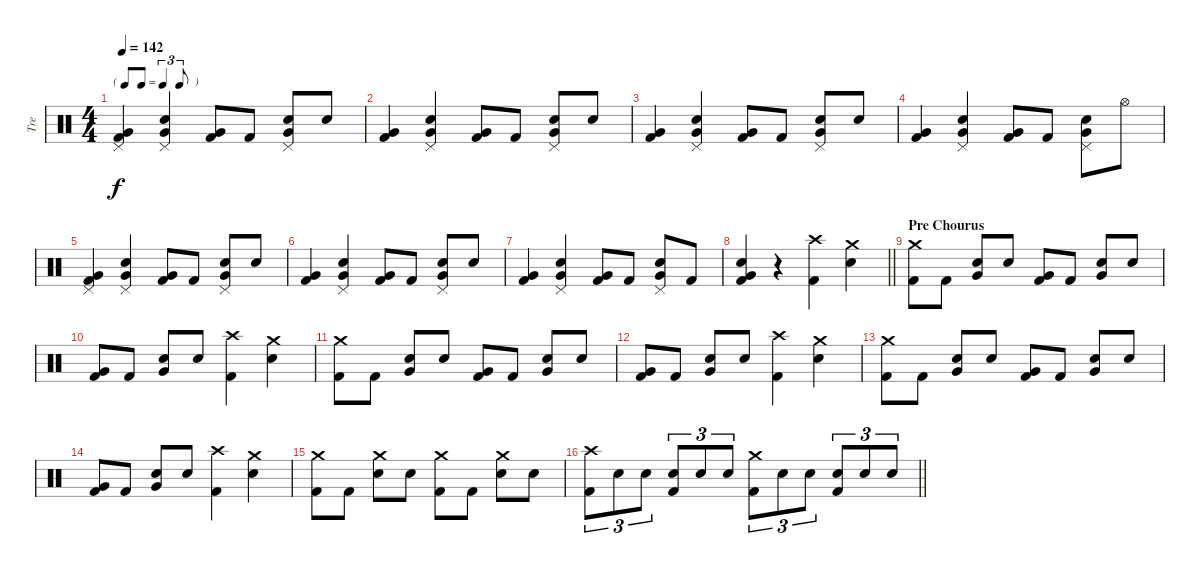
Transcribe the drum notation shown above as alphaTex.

\track ("Tre" "Tre") {instrument percussion}
\staff {score}
\articulation defaults
\ts (4 4)
\tf triplet8th
\tempo 142
\clef neutral
\ks c
("Pedal Hi-Hat (hit)" "Very Low Tom (hit)" "Kick (hit) 2").4{dy f} ("Pedal Hi-Hat (hit)" "Snare (hit) 2" "Very Low Tom (hit)").4 ("Very Low Tom (hit)" "Kick (hit) 2").8 "Kick (hit) 2".8 ("Pedal Hi-Hat (hit)" "Snare (hit) 2" "Very Low Tom (hit)").8 "Snare (hit) 2".8 |
("Very Low Tom (hit)" "Kick (hit) 2").4 ("Pedal Hi-Hat (hit)" "Snare (hit) 2" "Very Low Tom (hit)").4 ("Very Low Tom (hit)" "Kick (hit) 2").8 "Kick (hit) 2".8 ("Pedal Hi-Hat (hit)" "Snare (hit) 2" "Very Low Tom (hit)").8 "Snare (hit) 2".8 |
("Very Low Tom (hit)" "Kick (hit) 2").4 ("Pedal Hi-Hat (hit)" "Snare (hit) 2" "Very Low Tom (hit)").4 ("Very Low Tom (hit)" "Kick (hit) 2").8 "Kick (hit) 2".8 ("Pedal Hi-Hat (hit)" "Snare (hit) 2" "Very Low Tom (hit)").8 "Snare (hit) 2".8 |
("Very Low Tom (hit)" "Kick (hit) 2").4 ("Pedal Hi-Hat (hit)" "Snare (hit) 2" "Very Low Tom (hit)").4 ("Very Low Tom (hit)" "Kick (hit) 2").8 "Kick (hit) 2".8 ("Pedal Hi-Hat (hit)" "Snare (hit) 2" "Very Low Tom (hit)").8 "Hi-Hat (open)".8 |
("Pedal Hi-Hat (hit)" "Very Low Tom (hit)" "Kick (hit) 2").4 ("Pedal Hi-Hat (hit)" "Snare (hit) 2" "Very Low Tom (hit)").4 ("Very Low Tom (hit)" "Kick (hit) 2").8 "Kick (hit) 2".8 ("Pedal Hi-Hat (hit)" "Snare (hit) 2" "Very Low Tom (hit)").8 "Snare (hit) 2".8 |
("Very Low Tom (hit)" "Kick (hit) 2").4 ("Pedal Hi-Hat (hit)" "Snare (hit) 2" "Very Low Tom (hit)").4 ("Very Low Tom (hit)" "Kick (hit) 2").8 "Kick (hit) 2".8 ("Pedal Hi-Hat (hit)" "Snare (hit) 2" "Very Low Tom (hit)").8 "Snare (hit) 2".8 |
("Very Low Tom (hit)" "Kick (hit) 2").4 ("Pedal Hi-Hat (hit)" "Snare (hit) 2" "Very Low Tom (hit)").4 ("Very Low Tom (hit)" "Kick (hit) 2").8 "Kick (hit) 2".8 ("Pedal Hi-Hat (hit)" "Snare (hit) 2" "Very Low Tom (hit)").8 "Kick (hit) 2".8 |
\barLineRight lightlight
("Snare (hit) 2" "Very Low Tom (hit)" "Kick (hit) 2").4 r.4 ("Crash high (hit)" "Kick (hit) 2").4 ("Crash medium (hit)" "Snare (hit) 2").4 |
\section ("" "Pre Chourus")
("Crash medium (hit)" "Kick (hit) 2").8 "Kick (hit) 2".8 ("Snare (hit) 2" "Very Low Tom (hit)").8 "Snare (hit) 2".8 ("Very Low Tom (hit)" "Kick (hit) 2").8 "Kick (hit) 2".8 ("Snare (hit) 2" "Very Low Tom (hit)").8 "Snare (hit) 2".8 |
("Very Low Tom (hit)" "Kick (hit) 2").8 "Kick (hit) 2".8 ("Snare (hit) 2" "Very Low Tom (hit)").8 "Snare (hit) 2".8 ("Crash high (hit)" "Kick (hit) 2").4 ("Crash medium (hit)" "Snare (hit) 2").4 |
("Crash medium (hit)" "Kick (hit) 2").8 "Kick (hit) 2".8 ("Snare (hit) 2" "Very Low Tom (hit)").8 "Snare (hit) 2".8 ("Very Low Tom (hit)" "Kick (hit) 2").8 "Kick (hit) 2".8 ("Snare (hit) 2" "Very Low Tom (hit)").8 "Snare (hit) 2".8 |
("Very Low Tom (hit)" "Kick (hit) 2").8 "Kick (hit) 2".8 ("Snare (hit) 2" "Very Low Tom (hit)").8 "Snare (hit) 2".8 ("Crash high (hit)" "Kick (hit) 2").4 ("Crash medium (hit)" "Snare (hit) 2").4 |
("Crash medium (hit)" "Kick (hit) 2").8 "Kick (hit) 2".8 ("Snare (hit) 2" "Very Low Tom (hit)").8 "Snare (hit) 2".8 ("Very Low Tom (hit)" "Kick (hit) 2").8 "Kick (hit) 2".8 ("Snare (hit) 2" "Very Low Tom (hit)").8 "Snare (hit) 2".8 |
("Very Low Tom (hit)" "Kick (hit) 2").8 "Kick (hit) 2".8 ("Snare (hit) 2" "Very Low Tom (hit)").8 "Snare (hit) 2".8 ("Crash high (hit)" "Kick (hit) 2").4 ("Crash medium (hit)" "Snare (hit) 2").4 |
("Crash medium (hit)" "Kick (hit) 2").8 "Kick (hit) 2".8 ("Crash medium (hit)" "Snare (hit) 2").8 "Snare (hit) 2".8 ("Crash medium (hit)" "Kick (hit) 2").8 "Kick (hit) 2".8 ("Crash medium (hit)" "Snare (hit) 2").8 "Snare (hit) 2".8 |
\barLineRight lightlight
("Crash high (hit)" "Kick (hit) 2").8{tu (3 2)} "Snare (hit) 2".8{tu (3 2)} "Snare (hit) 2".8{tu (3 2)} ("Snare (hit) 2" "Kick (hit) 2").8{tu (3 2)} "Snare (hit) 2".8{tu (3 2)} "Snare (hit) 2".8{tu (3 2)} ("Crash medium (hit)" "Kick (hit) 2").8{tu (3 2)} "Snare (hit) 2".8{tu (3 2)} "Snare (hit) 2".8{tu (3 2)} ("Snare (hit) 2" "Kick (hit) 2").8{tu (3 2)} "Snare (hit) 2".8{tu (3 2)} "Snare (hit) 2".8{tu (3 2)}
